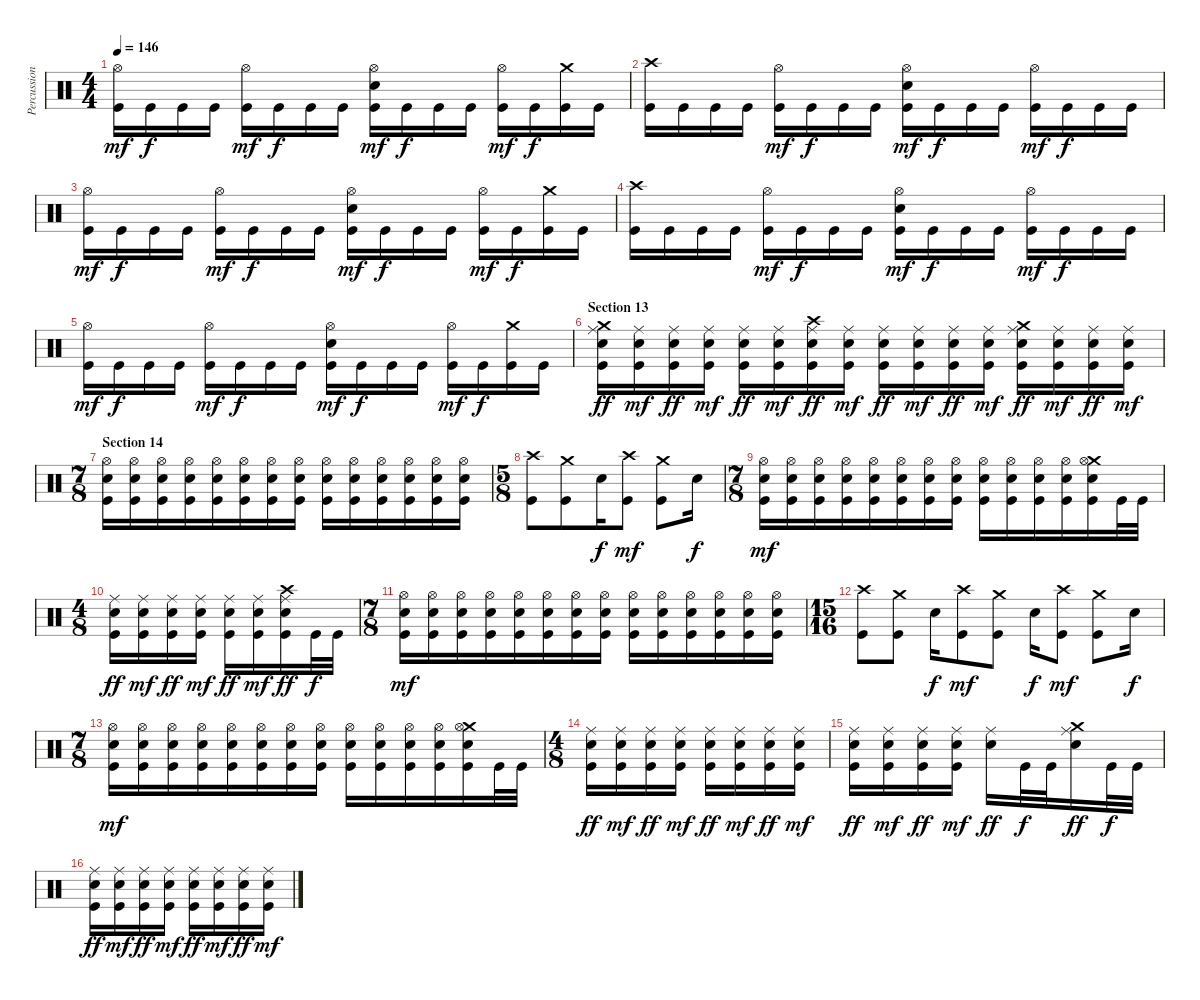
\track ("Percussion" "Percussion") {instrument percussion}
\staff {score}
\articulation defaults
\ts (4 4)
\tempo 146
\clef neutral
\ks c
("Hi-Hat (open)" "Kick (hit)").16{dy mf} "Kick (hit)".16{dy f} "Kick (hit)".16 "Kick (hit)".16 ("Hi-Hat (open)" "Kick (hit)").16{dy mf} "Kick (hit)".16{dy f} "Kick (hit)".16 "Kick (hit)".16 ("Hi-Hat (open)" "Electric Snare (hit)" "Kick (hit)").16{dy mf} "Kick (hit)".16{dy f} "Kick (hit)".16 "Kick (hit)".16 ("Hi-Hat (open)" "Kick (hit)").16{dy mf} "Kick (hit)".16{dy f} ("Crash medium (hit)" "Kick (hit)").16 "Kick (hit)".16 |
("Crash high (hit)" "Kick (hit)").16 "Kick (hit)".16 "Kick (hit)".16 "Kick (hit)".16 ("Hi-Hat (open)" "Kick (hit)").16{dy mf} "Kick (hit)".16{dy f} "Kick (hit)".16 "Kick (hit)".16 ("Hi-Hat (open)" "Electric Snare (hit)" "Kick (hit)").16{dy mf} "Kick (hit)".16{dy f} "Kick (hit)".16 "Kick (hit)".16 ("Hi-Hat (open)" "Kick (hit)").16{dy mf} "Kick (hit)".16{dy f} "Kick (hit)".16 "Kick (hit)".16 |
("Hi-Hat (open)" "Kick (hit)").16{dy mf} "Kick (hit)".16{dy f} "Kick (hit)".16 "Kick (hit)".16 ("Hi-Hat (open)" "Kick (hit)").16{dy mf} "Kick (hit)".16{dy f} "Kick (hit)".16 "Kick (hit)".16 ("Hi-Hat (open)" "Electric Snare (hit)" "Kick (hit)").16{dy mf} "Kick (hit)".16{dy f} "Kick (hit)".16 "Kick (hit)".16 ("Hi-Hat (open)" "Kick (hit)").16{dy mf} "Kick (hit)".16{dy f} ("Crash medium (hit)" "Kick (hit)").16 "Kick (hit)".16 |
("Crash high (hit)" "Kick (hit)").16 "Kick (hit)".16 "Kick (hit)".16 "Kick (hit)".16 ("Hi-Hat (open)" "Kick (hit)").16{dy mf} "Kick (hit)".16{dy f} "Kick (hit)".16 "Kick (hit)".16 ("Hi-Hat (open)" "Electric Snare (hit)" "Kick (hit)").16{dy mf} "Kick (hit)".16{dy f} "Kick (hit)".16 "Kick (hit)".16 ("Hi-Hat (open)" "Kick (hit)").16{dy mf} "Kick (hit)".16{dy f} "Kick (hit)".16 "Kick (hit)".16 |
("Hi-Hat (open)" "Kick (hit)").16{dy mf} "Kick (hit)".16{dy f} "Kick (hit)".16 "Kick (hit)".16 ("Hi-Hat (open)" "Kick (hit)").16{dy mf} "Kick (hit)".16{dy f} "Kick (hit)".16 "Kick (hit)".16 ("Hi-Hat (open)" "Electric Snare (hit)" "Kick (hit)").16{dy mf} "Kick (hit)".16{dy f} "Kick (hit)".16 "Kick (hit)".16 ("Hi-Hat (open)" "Kick (hit)").16{dy mf} "Kick (hit)".16{dy f} ("Crash medium (hit)" "Kick (hit)").16 "Kick (hit)".16 |
\section ("" "Section 13")
("Crash medium (hit)" "Ride (middle)" "Electric Snare (hit)" "Kick (hit)").16{dy ff} ("Ride (middle)" "Electric Snare (hit)" "Kick (hit)").16{dy mf} ("Ride (middle)" "Electric Snare (hit)" "Kick (hit)").16{dy ff} ("Ride (middle)" "Electric Snare (hit)" "Kick (hit)").16{dy mf} ("Ride (middle)" "Electric Snare (hit)" "Kick (hit)").16{dy ff} ("Ride (middle)" "Electric Snare (hit)" "Kick (hit)").16{dy mf} ("Crash high (hit)" "Ride (middle)" "Electric Snare (hit)" "Kick (hit)").16{dy ff} ("Ride (middle)" "Electric Snare (hit)" "Kick (hit)").16{dy mf} ("Ride (middle)" "Electric Snare (hit)" "Kick (hit)").16{dy ff} ("Ride (middle)" "Electric Snare (hit)" "Kick (hit)").16{dy mf} ("Ride (middle)" "Electric Snare (hit)" "Kick (hit)").16{dy ff} ("Ride (middle)" "Electric Snare (hit)" "Kick (hit)").16{dy mf} ("Crash medium (hit)" "Ride (middle)" "Electric Snare (hit)" "Kick (hit)").16{dy ff} ("Ride (middle)" "Electric Snare (hit)" "Kick (hit)").16{dy mf} ("Ride (middle)" "Electric Snare (hit)" "Kick (hit)").16{dy ff} ("Ride (middle)" "Electric Snare (hit)" "Kick (hit)").16{dy mf} |
\ts (7 8)
\section ("" "Section 14")
("Hi-Hat (open)" "Electric Snare (hit)" "Kick (hit)").16 ("Hi-Hat (open)" "Electric Snare (hit)" "Kick (hit)").16 ("Hi-Hat (open)" "Electric Snare (hit)" "Kick (hit)").16 ("Hi-Hat (open)" "Electric Snare (hit)" "Kick (hit)").16 ("Hi-Hat (open)" "Electric Snare (hit)" "Kick (hit)").16 ("Hi-Hat (open)" "Electric Snare (hit)" "Kick (hit)").16 ("Hi-Hat (open)" "Electric Snare (hit)" "Kick (hit)").16 ("Hi-Hat (open)" "Electric Snare (hit)" "Kick (hit)").16 ("Hi-Hat (open)" "Electric Snare (hit)" "Kick (hit)").16 ("Hi-Hat (open)" "Electric Snare (hit)" "Kick (hit)").16 ("Hi-Hat (open)" "Electric Snare (hit)" "Kick (hit)").16 ("Hi-Hat (open)" "Electric Snare (hit)" "Kick (hit)").16 ("Hi-Hat (open)" "Electric Snare (hit)" "Kick (hit)").16 ("Hi-Hat (open)" "Electric Snare (hit)" "Kick (hit)").16 |
\ts (5 8)
("Crash high (hit)" "Kick (hit)").8 ("Crash medium (hit)" "Kick (hit)").8 "Electric Snare (hit)".16{dy f} ("Crash high (hit)" "Kick (hit)").8{dy mf} ("Crash medium (hit)" "Kick (hit)").8 "Electric Snare (hit)".16{dy f} |
\ts (7 8)
("Hi-Hat (open)" "Electric Snare (hit)" "Kick (hit)").16{dy mf} ("Hi-Hat (open)" "Electric Snare (hit)" "Kick (hit)").16 ("Hi-Hat (open)" "Electric Snare (hit)" "Kick (hit)").16 ("Hi-Hat (open)" "Electric Snare (hit)" "Kick (hit)").16 ("Hi-Hat (open)" "Electric Snare (hit)" "Kick (hit)").16 ("Hi-Hat (open)" "Electric Snare (hit)" "Kick (hit)").16 ("Hi-Hat (open)" "Electric Snare (hit)" "Kick (hit)").16 ("Hi-Hat (open)" "Electric Snare (hit)" "Kick (hit)").16 ("Hi-Hat (open)" "Electric Snare (hit)" "Kick (hit)").16 ("Hi-Hat (open)" "Electric Snare (hit)" "Kick (hit)").16 ("Hi-Hat (open)" "Electric Snare (hit)" "Kick (hit)").16 ("Hi-Hat (open)" "Electric Snare (hit)" "Kick (hit)").16 ("Crash medium (hit)" "Hi-Hat (open)" "Electric Snare (hit)" "Kick (hit)").16 "Kick (hit)".32 "Kick (hit)".32 |
\ts (4 8)
("Ride (middle)" "Electric Snare (hit)" "Kick (hit)").16{dy ff} ("Ride (middle)" "Electric Snare (hit)" "Kick (hit)").16{dy mf} ("Ride (middle)" "Electric Snare (hit)" "Kick (hit)").16{dy ff} ("Ride (middle)" "Electric Snare (hit)" "Kick (hit)").16{dy mf} ("Ride (middle)" "Electric Snare (hit)" "Kick (hit)").16{dy ff} ("Ride (middle)" "Electric Snare (hit)" "Kick (hit)").16{dy mf} ("Crash high (hit)" "Ride (middle)" "Electric Snare (hit)" "Kick (hit)").16{dy ff} "Kick (hit)".32{dy f} "Kick (hit)".32 |
\ts (7 8)
("Hi-Hat (open)" "Electric Snare (hit)" "Kick (hit)").16{dy mf} ("Hi-Hat (open)" "Electric Snare (hit)" "Kick (hit)").16 ("Hi-Hat (open)" "Electric Snare (hit)" "Kick (hit)").16 ("Hi-Hat (open)" "Electric Snare (hit)" "Kick (hit)").16 ("Hi-Hat (open)" "Electric Snare (hit)" "Kick (hit)").16 ("Hi-Hat (open)" "Electric Snare (hit)" "Kick (hit)").16 ("Hi-Hat (open)" "Electric Snare (hit)" "Kick (hit)").16 ("Hi-Hat (open)" "Electric Snare (hit)" "Kick (hit)").16 ("Hi-Hat (open)" "Electric Snare (hit)" "Kick (hit)").16 ("Hi-Hat (open)" "Electric Snare (hit)" "Kick (hit)").16 ("Hi-Hat (open)" "Electric Snare (hit)" "Kick (hit)").16 ("Hi-Hat (open)" "Electric Snare (hit)" "Kick (hit)").16 ("Hi-Hat (open)" "Electric Snare (hit)" "Kick (hit)").16 ("Hi-Hat (open)" "Electric Snare (hit)" "Kick (hit)").16 |
\ts (15 16)
("Crash high (hit)" "Kick (hit)").8 ("Crash medium (hit)" "Kick (hit)").8 "Electric Snare (hit)".16{dy f} ("Crash high (hit)" "Kick (hit)").8{dy mf} ("Crash medium (hit)" "Kick (hit)").8 "Electric Snare (hit)".16{dy f} ("Crash high (hit)" "Kick (hit)").8{dy mf} ("Crash medium (hit)" "Kick (hit)").8 "Electric Snare (hit)".16{dy f} |
\ts (7 8)
("Hi-Hat (open)" "Electric Snare (hit)" "Kick (hit)").16{dy mf} ("Hi-Hat (open)" "Electric Snare (hit)" "Kick (hit)").16 ("Hi-Hat (open)" "Electric Snare (hit)" "Kick (hit)").16 ("Hi-Hat (open)" "Electric Snare (hit)" "Kick (hit)").16 ("Hi-Hat (open)" "Electric Snare (hit)" "Kick (hit)").16 ("Hi-Hat (open)" "Electric Snare (hit)" "Kick (hit)").16 ("Hi-Hat (open)" "Electric Snare (hit)" "Kick (hit)").16 ("Hi-Hat (open)" "Electric Snare (hit)" "Kick (hit)").16 ("Hi-Hat (open)" "Electric Snare (hit)" "Kick (hit)").16 ("Hi-Hat (open)" "Electric Snare (hit)" "Kick (hit)").16 ("Hi-Hat (open)" "Electric Snare (hit)" "Kick (hit)").16 ("Hi-Hat (open)" "Electric Snare (hit)" "Kick (hit)").16 ("Crash medium (hit)" "Hi-Hat (open)" "Electric Snare (hit)" "Kick (hit)").16 "Kick (hit)".32 "Kick (hit)".32 |
\ts (4 8)
("Ride (middle)" "Electric Snare (hit)" "Kick (hit)").16{dy ff} ("Ride (middle)" "Electric Snare (hit)" "Kick (hit)").16{dy mf} ("Ride (middle)" "Electric Snare (hit)" "Kick (hit)").16{dy ff} ("Ride (middle)" "Electric Snare (hit)" "Kick (hit)").16{dy mf} ("Ride (middle)" "Electric Snare (hit)" "Kick (hit)").16{dy ff} ("Ride (middle)" "Electric Snare (hit)" "Kick (hit)").16{dy mf} ("Ride (middle)" "Electric Snare (hit)" "Kick (hit)").16{dy ff} ("Ride (middle)" "Electric Snare (hit)" "Kick (hit)").16{dy mf} |
("Ride (middle)" "Electric Snare (hit)" "Kick (hit)").16{dy ff} ("Ride (middle)" "Electric Snare (hit)" "Kick (hit)").16{dy mf} ("Ride (middle)" "Electric Snare (hit)" "Kick (hit)").16{dy ff} ("Ride (middle)" "Electric Snare (hit)" "Kick (hit)").16{dy mf} ("Ride (middle)" "Electric Snare (hit)").16{dy ff} "Kick (hit)".32{dy f} "Kick (hit)".32 ("Crash medium (hit)" "Ride (middle)" "Electric Snare (hit)").16{dy ff} "Kick (hit)".32{dy f} "Kick (hit)".32 |
("Ride (middle)" "Electric Snare (hit)" "Kick (hit)").16{dy ff} ("Ride (middle)" "Electric Snare (hit)" "Kick (hit)").16{dy mf} ("Ride (middle)" "Electric Snare (hit)" "Kick (hit)").16{dy ff} ("Ride (middle)" "Electric Snare (hit)" "Kick (hit)").16{dy mf} ("Ride (middle)" "Electric Snare (hit)" "Kick (hit)").16{dy ff} ("Ride (middle)" "Electric Snare (hit)" "Kick (hit)").16{dy mf} ("Ride (middle)" "Electric Snare (hit)" "Kick (hit)").16{dy ff} ("Ride (middle)" "Electric Snare (hit)" "Kick (hit)").16{dy mf}
